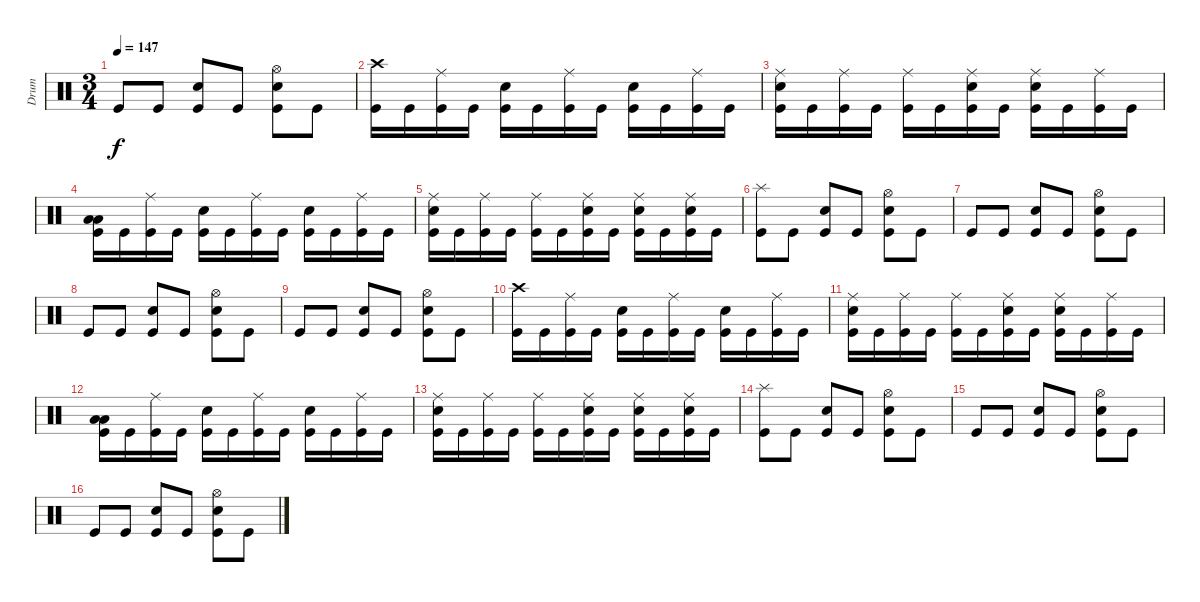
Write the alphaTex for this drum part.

\track ("Drum" "Drum") {instrument percussion}
\staff {score}
\articulation defaults
\ts (3 4)
\tempo 147
\clef neutral
\ks c "Kick (hit)".8{dy f} "Kick (hit)".8
("Snare (hit) 2" "Kick (hit)").8 "Kick (hit)".8 ("Hi-Hat (open)" "Snare (hit) 2" "Kick (hit)").8 "Kick (hit)".8 |
("Crash high (hit)" "Kick (hit)").16 "Kick (hit)".16 ("Ride (middle)" "Kick (hit)").16 "Kick (hit)".16 ("Snare (hit) 2" "Kick (hit)").16 "Kick (hit)".16 ("Ride (middle)" "Kick (hit)").16 "Kick (hit)".16 ("Snare (hit) 2" "Kick (hit)").16 "Kick (hit)".16 ("Ride (middle)" "Kick (hit)").16 "Kick (hit)".16 |
("Ride (middle)" "Snare (hit) 2" "Kick (hit)").16 "Kick (hit)".16 ("Ride (middle)" "Kick (hit)").16 "Kick (hit)".16 ("Ride (middle)" "Kick (hit)").16 "Kick (hit)".16 ("Ride (middle)" "Snare (hit) 2" "Kick (hit)").16 "Kick (hit)".16 ("Ride (middle)" "Snare (hit) 2" "Kick (hit)").16 "Kick (hit)".16 ("Ride (middle)" "Kick (hit)").16 "Kick (hit)".16 |
("Low Floor Tom (hit)" "Low Floor Tom (hit)" "Kick (hit)").16 "Kick (hit)".16 ("Ride (middle)" "Kick (hit)").16 "Kick (hit)".16 ("Snare (hit) 2" "Kick (hit)").16 "Kick (hit)".16 ("Ride (middle)" "Kick (hit)").16 "Kick (hit)".16 ("Snare (hit) 2" "Kick (hit)").16 "Kick (hit)".16 ("Ride (middle)" "Kick (hit)").16 "Kick (hit)".16 |
("Ride (middle)" "Snare (hit) 2" "Kick (hit)").16 "Kick (hit)".16 ("Ride (middle)" "Kick (hit)").16 "Kick (hit)".16 ("Ride (middle)" "Kick (hit)").16 "Kick (hit)".16 ("Ride (middle)" "Snare (hit) 2" "Kick (hit)").16 "Kick (hit)".16 ("Ride (middle)" "Snare (hit) 2" "Kick (hit)").16 "Kick (hit)".16 ("Ride (middle)" "Snare (hit) 2" "Kick (hit)").16 "Kick (hit)".16 |
("Splash (hit)" "Kick (hit)").8 "Kick (hit)".8 ("Snare (hit) 2" "Kick (hit)").8 "Kick (hit)".8 ("Hi-Hat (open)" "Snare (hit) 2" "Kick (hit)").8 "Kick (hit)".8 |
"Kick (hit)".8 "Kick (hit)".8 ("Snare (hit) 2" "Kick (hit)").8 "Kick (hit)".8 ("Hi-Hat (open)" "Snare (hit) 2" "Kick (hit)").8 "Kick (hit)".8 |
"Kick (hit)".8 "Kick (hit)".8 ("Snare (hit) 2" "Kick (hit)").8 "Kick (hit)".8 ("Hi-Hat (open)" "Snare (hit) 2" "Kick (hit)").8 "Kick (hit)".8 |
"Kick (hit)".8 "Kick (hit)".8 ("Snare (hit) 2" "Kick (hit)").8 "Kick (hit)".8 ("Hi-Hat (open)" "Snare (hit) 2" "Kick (hit)").8 "Kick (hit)".8 |
("Crash high (hit)" "Kick (hit)").16 "Kick (hit)".16 ("Ride (middle)" "Kick (hit)").16 "Kick (hit)".16 ("Snare (hit) 2" "Kick (hit)").16 "Kick (hit)".16 ("Ride (middle)" "Kick (hit)").16 "Kick (hit)".16 ("Snare (hit) 2" "Kick (hit)").16 "Kick (hit)".16 ("Ride (middle)" "Kick (hit)").16 "Kick (hit)".16 |
("Ride (middle)" "Snare (hit) 2" "Kick (hit)").16 "Kick (hit)".16 ("Ride (middle)" "Kick (hit)").16 "Kick (hit)".16 ("Ride (middle)" "Kick (hit)").16 "Kick (hit)".16 ("Ride (middle)" "Snare (hit) 2" "Kick (hit)").16 "Kick (hit)".16 ("Ride (middle)" "Snare (hit) 2" "Kick (hit)").16 "Kick (hit)".16 ("Ride (middle)" "Kick (hit)").16 "Kick (hit)".16 |
("Low Floor Tom (hit)" "Low Floor Tom (hit)" "Kick (hit)").16 "Kick (hit)".16 ("Ride (middle)" "Kick (hit)").16 "Kick (hit)".16 ("Snare (hit) 2" "Kick (hit)").16 "Kick (hit)".16 ("Ride (middle)" "Kick (hit)").16 "Kick (hit)".16 ("Snare (hit) 2" "Kick (hit)").16 "Kick (hit)".16 ("Ride (middle)" "Kick (hit)").16 "Kick (hit)".16 |
("Ride (middle)" "Snare (hit) 2" "Kick (hit)").16 "Kick (hit)".16 ("Ride (middle)" "Kick (hit)").16 "Kick (hit)".16 ("Ride (middle)" "Kick (hit)").16 "Kick (hit)".16 ("Ride (middle)" "Snare (hit) 2" "Kick (hit)").16 "Kick (hit)".16 ("Ride (middle)" "Snare (hit) 2" "Kick (hit)").16 "Kick (hit)".16 ("Ride (middle)" "Snare (hit) 2" "Kick (hit)").16 "Kick (hit)".16 |
("Splash (hit)" "Kick (hit)").8 "Kick (hit)".8 ("Snare (hit) 2" "Kick (hit)").8 "Kick (hit)".8 ("Hi-Hat (open)" "Snare (hit) 2" "Kick (hit)").8 "Kick (hit)".8 |
"Kick (hit)".8 "Kick (hit)".8 ("Snare (hit) 2" "Kick (hit)").8 "Kick (hit)".8 ("Hi-Hat (open)" "Snare (hit) 2" "Kick (hit)").8 "Kick (hit)".8 |
"Kick (hit)".8 "Kick (hit)".8 ("Snare (hit) 2" "Kick (hit)").8 "Kick (hit)".8 ("Hi-Hat (open)" "Snare (hit) 2" "Kick (hit)").8 "Kick (hit)".8
